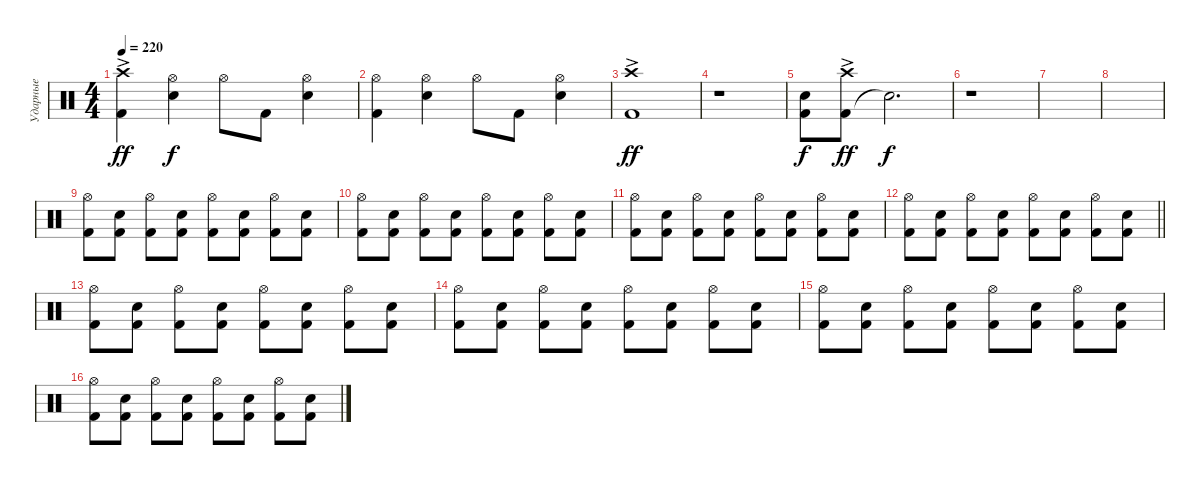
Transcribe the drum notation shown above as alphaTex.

\track ("Ударные" "Ударные") {instrument percussion}
\staff {score}
\articulation defaults
\ts (4 4)
\tempo 220
\clef neutral
\ks c
("Kick (hit) 2" "Crash high (hit)"{ac}).4{dy ff} ("Snare (hit) 2" "Hi-Hat (open)").4{dy f} "Hi-Hat (open)".8 "Kick (hit) 2".8 ("Snare (hit) 2" "Hi-Hat (open)").4 |
("Kick (hit) 2" "Hi-Hat (open)").4 ("Snare (hit) 2" "Hi-Hat (open)").4 "Hi-Hat (open)".8 "Kick (hit) 2".8 ("Snare (hit) 2" "Hi-Hat (open)").4 |
("Kick (hit) 2" "Crash high (hit)"{ac}).1{dy ff} |
r.1 |
("Kick (hit) 2" "Snare (hit) 2").8{dy f} ("Kick (hit) 2" "Crash high (hit)"{ac}).8{dy ff} "Snare (hit)"{t}.2{d dy f} |
r.1 |
|
|
("Kick (hit) 2" "Hi-Hat (open)").8 ("Kick (hit) 2" "Snare (hit) 2").8 ("Kick (hit) 2" "Hi-Hat (open)").8 ("Kick (hit) 2" "Snare (hit) 2").8 ("Kick (hit) 2" "Hi-Hat (open)").8 ("Kick (hit) 2" "Snare (hit) 2").8 ("Kick (hit) 2" "Hi-Hat (open)").8 ("Kick (hit) 2" "Snare (hit) 2").8 |
("Kick (hit) 2" "Hi-Hat (open)").8 ("Kick (hit) 2" "Snare (hit) 2").8 ("Kick (hit) 2" "Hi-Hat (open)").8 ("Kick (hit) 2" "Snare (hit) 2").8 ("Kick (hit) 2" "Hi-Hat (open)").8 ("Kick (hit) 2" "Snare (hit) 2").8 ("Kick (hit) 2" "Hi-Hat (open)").8 ("Kick (hit) 2" "Snare (hit) 2").8 |
("Kick (hit) 2" "Hi-Hat (open)").8 ("Kick (hit) 2" "Snare (hit) 2").8 ("Kick (hit) 2" "Hi-Hat (open)").8 ("Kick (hit) 2" "Snare (hit) 2").8 ("Kick (hit) 2" "Hi-Hat (open)").8 ("Kick (hit) 2" "Snare (hit) 2").8 ("Kick (hit) 2" "Hi-Hat (open)").8 ("Kick (hit) 2" "Snare (hit) 2").8 |
\barLineRight lightlight
("Kick (hit) 2" "Hi-Hat (open)").8 ("Kick (hit) 2" "Snare (hit) 2").8 ("Kick (hit) 2" "Hi-Hat (open)").8 ("Kick (hit) 2" "Snare (hit) 2").8 ("Kick (hit) 2" "Hi-Hat (open)").8 ("Kick (hit) 2" "Snare (hit) 2").8 ("Kick (hit) 2" "Hi-Hat (open)").8 ("Kick (hit) 2" "Snare (hit) 2").8 |
("Kick (hit) 2" "Hi-Hat (open)").8 ("Kick (hit) 2" "Snare (hit) 2").8 ("Kick (hit) 2" "Hi-Hat (open)").8 ("Kick (hit) 2" "Snare (hit) 2").8 ("Kick (hit) 2" "Hi-Hat (open)").8 ("Kick (hit) 2" "Snare (hit) 2").8 ("Kick (hit) 2" "Hi-Hat (open)").8 ("Kick (hit) 2" "Snare (hit) 2").8 |
("Kick (hit) 2" "Hi-Hat (open)").8 ("Kick (hit) 2" "Snare (hit) 2").8 ("Kick (hit) 2" "Hi-Hat (open)").8 ("Kick (hit) 2" "Snare (hit) 2").8 ("Kick (hit) 2" "Hi-Hat (open)").8 ("Kick (hit) 2" "Snare (hit) 2").8 ("Kick (hit) 2" "Hi-Hat (open)").8 ("Kick (hit) 2" "Snare (hit) 2").8 |
("Kick (hit) 2" "Hi-Hat (open)").8 ("Kick (hit) 2" "Snare (hit) 2").8 ("Kick (hit) 2" "Hi-Hat (open)").8 ("Kick (hit) 2" "Snare (hit) 2").8 ("Kick (hit) 2" "Hi-Hat (open)").8 ("Kick (hit) 2" "Snare (hit) 2").8 ("Kick (hit) 2" "Hi-Hat (open)").8 ("Kick (hit) 2" "Snare (hit) 2").8 |
("Kick (hit) 2" "Hi-Hat (open)").8 ("Kick (hit) 2" "Snare (hit) 2").8 ("Kick (hit) 2" "Hi-Hat (open)").8 ("Kick (hit) 2" "Snare (hit) 2").8 ("Kick (hit) 2" "Hi-Hat (open)").8 ("Kick (hit) 2" "Snare (hit) 2").8 ("Kick (hit) 2" "Hi-Hat (open)").8 ("Kick (hit) 2" "Snare (hit) 2").8
